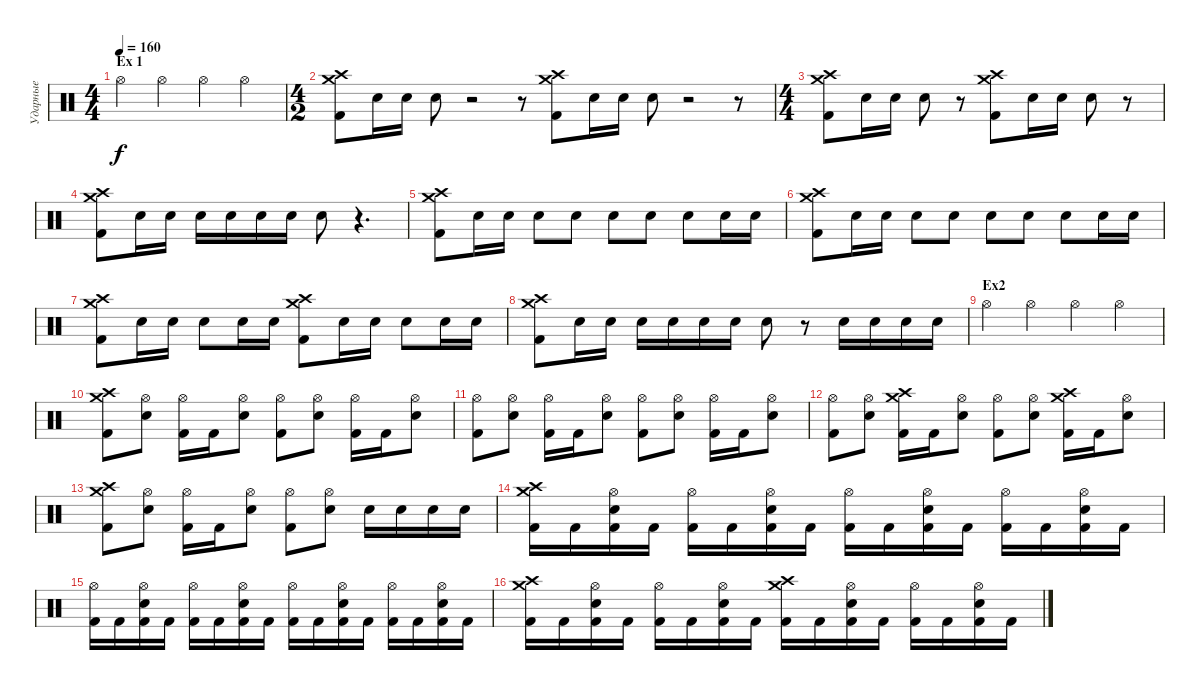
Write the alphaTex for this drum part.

\track ("Ударные" "Ударные") {instrument percussion}
\staff {score}
\articulation defaults
\ts (4 4)
\section ("" "Ex 1")
\tempo 160
\clef neutral
\ks c "Hi-Hat (open)".4{dy f} "Hi-Hat (open)".4 "Hi-Hat (open)".4 "Hi-Hat (open)".4
|
\ts (4 2)
("Kick (hit) 2" "Crash high (hit)" "Crash medium (hit)").8 "Electric Snare (hit)".16 "Electric Snare (hit)".16 "Electric Snare (hit)".8 r.2 r.8 ("Kick (hit) 2" "Crash high (hit)" "Crash medium (hit)").8 "Electric Snare (hit)".16 "Electric Snare (hit)".16 "Electric Snare (hit)".8 r.2 r.8 |
\ts (4 4)
("Kick (hit) 2" "Crash high (hit)" "Crash medium (hit)").8 "Electric Snare (hit)".16 "Electric Snare (hit)".16 "Electric Snare (hit)".8 r.8 ("Kick (hit) 2" "Crash high (hit)" "Crash medium (hit)").8 "Electric Snare (hit)".16 "Electric Snare (hit)".16 "Electric Snare (hit)".8 r.8 |
("Kick (hit) 2" "Crash high (hit)" "Crash medium (hit)").8 "Electric Snare (hit)".16 "Electric Snare (hit)".16 "Electric Snare (hit)".16 "Electric Snare (hit)".16 "Electric Snare (hit)".16 "Electric Snare (hit)".16 "Electric Snare (hit)".8 r.4{d} |
("Kick (hit) 2" "Crash high (hit)" "Crash medium (hit)").8 "Electric Snare (hit)".16 "Electric Snare (hit)".16 "Electric Snare (hit)".8 "Electric Snare (hit)".8 "Electric Snare (hit)".8 "Electric Snare (hit)".8 "Electric Snare (hit)".8 "Electric Snare (hit)".16 "Electric Snare (hit)".16 |
("Kick (hit) 2" "Crash medium (hit)" "Crash high (hit)").8 "Electric Snare (hit)".16 "Electric Snare (hit)".16 "Electric Snare (hit)".8 "Electric Snare (hit)".8 "Electric Snare (hit)".8 "Electric Snare (hit)".8 "Electric Snare (hit)".8 "Electric Snare (hit)".16 "Electric Snare (hit)".16 |
("Kick (hit) 2" "Crash high (hit)" "Crash medium (hit)").8 "Electric Snare (hit)".16 "Electric Snare (hit)".16 "Electric Snare (hit)".8 "Electric Snare (hit)".16 "Electric Snare (hit)".16 ("Kick (hit) 2" "Crash high (hit)" "Crash medium (hit)").8 "Electric Snare (hit)".16 "Electric Snare (hit)".16 "Electric Snare (hit)".8 "Electric Snare (hit)".16 "Electric Snare (hit)".16 |
("Kick (hit) 2" "Crash high (hit)" "Crash medium (hit)").8 "Electric Snare (hit)".16 "Electric Snare (hit)".16 "Electric Snare (hit)".16 "Electric Snare (hit)".16 "Electric Snare (hit)".16 "Electric Snare (hit)".16 "Electric Snare (hit)".8 r.8 "Electric Snare (hit)".16 "Electric Snare (hit)".16 "Electric Snare (hit)".16 "Electric Snare (hit)".16 |
\section ("" "Ex2")
"Hi-Hat (open)".4 "Hi-Hat (open)".4 "Hi-Hat (open)".4 "Hi-Hat (open)".4 |
("Kick (hit) 2" "Crash high (hit)" "Crash medium (hit)").8 ("Electric Snare (hit)" "Hi-Hat (open)").8 ("Kick (hit) 2" "Hi-Hat (open)").16 "Kick (hit) 2".16 ("Electric Snare (hit)" "Hi-Hat (open)").8 ("Kick (hit) 2" "Hi-Hat (open)").8 ("Electric Snare (hit)" "Hi-Hat (open)").8 ("Kick (hit) 2" "Hi-Hat (open)").16 "Kick (hit) 2".16 ("Electric Snare (hit)" "Hi-Hat (open)").8 |
("Kick (hit) 2" "Hi-Hat (open)").8 ("Electric Snare (hit)" "Hi-Hat (open)").8 ("Kick (hit) 2" "Hi-Hat (open)").16 "Kick (hit) 2".16 ("Electric Snare (hit)" "Hi-Hat (open)").8 ("Kick (hit) 2" "Hi-Hat (open)").8 ("Electric Snare (hit)" "Hi-Hat (open)").8 ("Kick (hit) 2" "Hi-Hat (open)").16 "Kick (hit) 2".16 ("Electric Snare (hit)" "Hi-Hat (open)").8 |
("Kick (hit) 2" "Hi-Hat (open)").8 ("Electric Snare (hit)" "Hi-Hat (open)").8 ("Kick (hit) 2" "Crash high (hit)" "Crash medium (hit)").16 "Kick (hit) 2".16 ("Electric Snare (hit)" "Hi-Hat (open)").8 ("Kick (hit) 2" "Hi-Hat (open)").8 ("Electric Snare (hit)" "Hi-Hat (open)").8 ("Kick (hit) 2" "Crash high (hit)" "Crash medium (hit)").16 "Kick (hit) 2".16 ("Electric Snare (hit)" "Hi-Hat (open)").8 |
("Kick (hit) 2" "Crash high (hit)" "Crash medium (hit)").8 ("Electric Snare (hit)" "Hi-Hat (open)").8 ("Kick (hit) 2" "Hi-Hat (open)").16 "Kick (hit) 2".16 ("Electric Snare (hit)" "Hi-Hat (open)").8 ("Kick (hit) 2" "Hi-Hat (open)").8 ("Electric Snare (hit)" "Hi-Hat (open)").8 "Electric Snare (hit)".16 "Electric Snare (hit)".16 "Electric Snare (hit)".16 "Electric Snare (hit)".16 |
("Kick (hit) 2" "Crash high (hit)" "Crash medium (hit)").16 "Kick (hit) 2".16 ("Kick (hit) 2" "Electric Snare (hit)" "Hi-Hat (open)").16 "Kick (hit) 2".16 ("Kick (hit) 2" "Hi-Hat (open)").16 "Kick (hit) 2".16 ("Kick (hit) 2" "Electric Snare (hit)" "Hi-Hat (open)").16 "Kick (hit) 2".16 ("Kick (hit) 2" "Hi-Hat (open)").16 "Kick (hit) 2".16 ("Kick (hit) 2" "Electric Snare (hit)" "Hi-Hat (open)").16 "Kick (hit) 2".16 ("Kick (hit) 2" "Hi-Hat (open)").16 "Kick (hit) 2".16 ("Kick (hit) 2" "Electric Snare (hit)" "Hi-Hat (open)").16 "Kick (hit) 2".16 |
("Kick (hit) 2" "Hi-Hat (open)").16 "Kick (hit) 2".16 ("Kick (hit) 2" "Electric Snare (hit)" "Hi-Hat (open)").16 "Kick (hit) 2".16 ("Kick (hit) 2" "Hi-Hat (open)").16 "Kick (hit) 2".16 ("Kick (hit) 2" "Electric Snare (hit)" "Hi-Hat (open)").16 "Kick (hit) 2".16 ("Kick (hit) 2" "Hi-Hat (open)").16 "Kick (hit) 2".16 ("Kick (hit) 2" "Electric Snare (hit)" "Hi-Hat (open)").16 "Kick (hit) 2".16 ("Kick (hit) 2" "Hi-Hat (open)").16 "Kick (hit) 2".16 ("Kick (hit) 2" "Electric Snare (hit)" "Hi-Hat (open)").16 "Kick (hit) 2".16 |
("Kick (hit) 2" "Crash high (hit)" "Crash medium (hit)").16 "Kick (hit) 2".16 ("Kick (hit) 2" "Electric Snare (hit)" "Hi-Hat (open)").16 "Kick (hit) 2".16 ("Kick (hit) 2" "Hi-Hat (open)").16 "Kick (hit) 2".16 ("Kick (hit) 2" "Electric Snare (hit)" "Hi-Hat (open)").16 "Kick (hit) 2".16 ("Kick (hit) 2" "Crash high (hit)" "Crash medium (hit)").16 "Kick (hit) 2".16 ("Kick (hit) 2" "Electric Snare (hit)" "Hi-Hat (open)").16 "Kick (hit) 2".16 ("Kick (hit) 2" "Hi-Hat (open)").16 "Kick (hit) 2".16 ("Kick (hit) 2" "Electric Snare (hit)" "Hi-Hat (open)").16 "Kick (hit) 2".16
